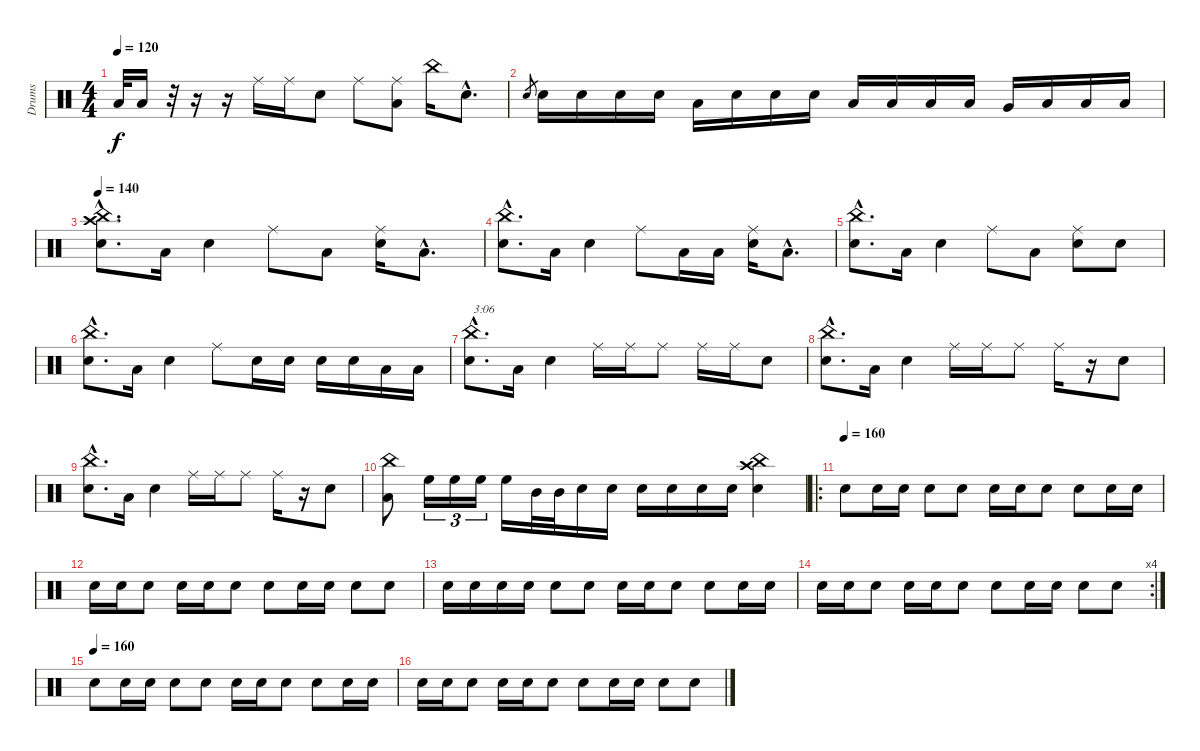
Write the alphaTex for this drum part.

\track ("Drums" "Drums") {instrument percussion}
\staff {score}
\articulation defaults
\ts (4 4)
\tempo 120
\clef neutral
\ks aminor "Low Floor Tom (hit)".32{dy f} "Low Floor Tom (hit)".16
r.32 r.16 r.16 "Ride (middle)".16 "Ride (middle)".16 "Electric Snare (hit)".8 "Ride (middle)".8 ("Ride (middle)" "Low Floor Tom (hit)").8 "China (hit)".16 "Electric Snare (hit)"{hac}.8{d} |
"Electric Snare (hit)".8{gr} "Electric Snare (hit)".16 "Electric Snare (hit)".16 "Electric Snare (hit)".16 "Electric Snare (hit)".16 "Low Floor Tom (hit)".16 "Electric Snare (hit)".16 "Electric Snare (hit)".16 "Electric Snare (hit)".16 "Low Floor Tom (hit)".16 "Low Floor Tom (hit)".16 "Low Floor Tom (hit)".16 "Low Floor Tom (hit)".16 "Very Low Tom (hit)".16 "Low Floor Tom (hit)".16 "Low Floor Tom (hit)".16 "Low Floor Tom (hit)".16 |
\tempo 140
("China (hit)"{hac} "Crash high (hit)"{hac} "Electric Snare (hit)"{hac}).8{d} "Low Floor Tom (hit)".16 "Electric Snare (hit)".4 "Ride (middle)".8 "Low Floor Tom (hit)".8 ("Ride (middle)" "Electric Snare (hit)").16 "Low Floor Tom (hit)"{hac}.8{d} |
("China (hit)"{hac} "Electric Snare (hit)"{hac}).8{d} "Low Floor Tom (hit)".16 "Electric Snare (hit)".4 "Ride (middle)".8 "Low Floor Tom (hit)".16 "Low Floor Tom (hit)".16 ("Ride (middle)" "Electric Snare (hit)").16 "Low Floor Tom (hit)"{hac}.8{d} |
("China (hit)"{hac} "Electric Snare (hit)"{hac}).8{d} "Low Floor Tom (hit)".16 "Electric Snare (hit)".4 "Ride (middle)".8 "Low Floor Tom (hit)".8 ("Ride (middle)" "Electric Snare (hit)").8 "Electric Snare (hit)".8 |
("China (hit)"{hac} "Electric Snare (hit)"{hac}).8{d} "Low Floor Tom (hit)".16 "Electric Snare (hit)".4 "Ride (middle)".8 "Electric Snare (hit)".16 "Electric Snare (hit)".16 "Electric Snare (hit)".16 "Electric Snare (hit)".16 "Low Floor Tom (hit)".16 "Low Floor Tom (hit)".16 |
("China (hit)"{hac} "Electric Snare (hit)"{hac}).8{d txt "3:06"} "Low Floor Tom (hit)".16 "Electric Snare (hit)".4 "Ride (middle)".16 "Ride (middle)".16 "Ride (middle)".8 "Ride (middle)".16 "Ride (middle)".16 "Electric Snare (hit)".8 |
("China (hit)"{hac} "Electric Snare (hit)"{hac}).8{d} "Low Floor Tom (hit)".16 "Electric Snare (hit)".4 "Ride (middle)".16 "Ride (middle)".16 "Ride (middle)".8 "Ride (middle)".16 r.16 "Electric Snare (hit)".8 |
("China (hit)"{hac} "Electric Snare (hit)"{hac}).8{d} "Low Floor Tom (hit)".16 "Electric Snare (hit)".4 "Ride (middle)".16 "Ride (middle)".16 "Ride (middle)".8 "Ride (middle)".16 r.16 "Electric Snare (hit)".8 |
("China (hit)" "Low Floor Tom (hit)").8 "High Floor Tom (hit)".16{tu (3 2)} "High Floor Tom (hit)".16{tu (3 2)} "High Floor Tom (hit)".16{tu (3 2)} "High Floor Tom (hit)".16 "Mid Tom (hit)".32 "Mid Tom (hit)".32 "Snare (hit) 2".16 "Snare (hit) 2".16 "Electric Snare (hit)".16 "Electric Snare (hit)".16 "Electric Snare (hit)".16 "Electric Snare (hit)".16 ("Crash high (hit)" "China (hit)" "Electric Snare (hit)").4 |
\ro
\tempo (160)
"Electric Snare (hit)".8 "Electric Snare (hit)".16 "Electric Snare (hit)".16 "Electric Snare (hit)".8 "Electric Snare (hit)".8 "Electric Snare (hit)".16 "Electric Snare (hit)".16 "Electric Snare (hit)".8 "Electric Snare (hit)".8 "Electric Snare (hit)".16 "Electric Snare (hit)".16 |
"Electric Snare (hit)".16 "Electric Snare (hit)".16 "Electric Snare (hit)".8 "Electric Snare (hit)".16 "Electric Snare (hit)".16 "Electric Snare (hit)".8 "Electric Snare (hit)".8 "Electric Snare (hit)".16 "Electric Snare (hit)".16 "Electric Snare (hit)".8 "Electric Snare (hit)".8 |
"Electric Snare (hit)".16 "Electric Snare (hit)".16 "Electric Snare (hit)".16 "Electric Snare (hit)".16 "Electric Snare (hit)".8 "Electric Snare (hit)".8 "Electric Snare (hit)".16 "Electric Snare (hit)".16 "Electric Snare (hit)".8 "Electric Snare (hit)".8 "Electric Snare (hit)".16 "Electric Snare (hit)".16 |
\rc 4 "Electric Snare (hit)".16 "Electric Snare (hit)".16 "Electric Snare (hit)".8 "Electric Snare (hit)".16 "Electric Snare (hit)".16 "Electric Snare (hit)".8 "Electric Snare (hit)".8 "Electric Snare (hit)".16 "Electric Snare (hit)".16 "Electric Snare (hit)".8 "Electric Snare (hit)".8
|
\tempo (160)
"Electric Snare (hit)".8 "Electric Snare (hit)".16 "Electric Snare (hit)".16 "Electric Snare (hit)".8 "Electric Snare (hit)".8 "Electric Snare (hit)".16 "Electric Snare (hit)".16 "Electric Snare (hit)".8 "Electric Snare (hit)".8 "Electric Snare (hit)".16 "Electric Snare (hit)".16 |
"Electric Snare (hit)".16 "Electric Snare (hit)".16 "Electric Snare (hit)".8 "Electric Snare (hit)".16 "Electric Snare (hit)".16 "Electric Snare (hit)".8 "Electric Snare (hit)".8 "Electric Snare (hit)".16 "Electric Snare (hit)".16 "Electric Snare (hit)".8 "Electric Snare (hit)".8
